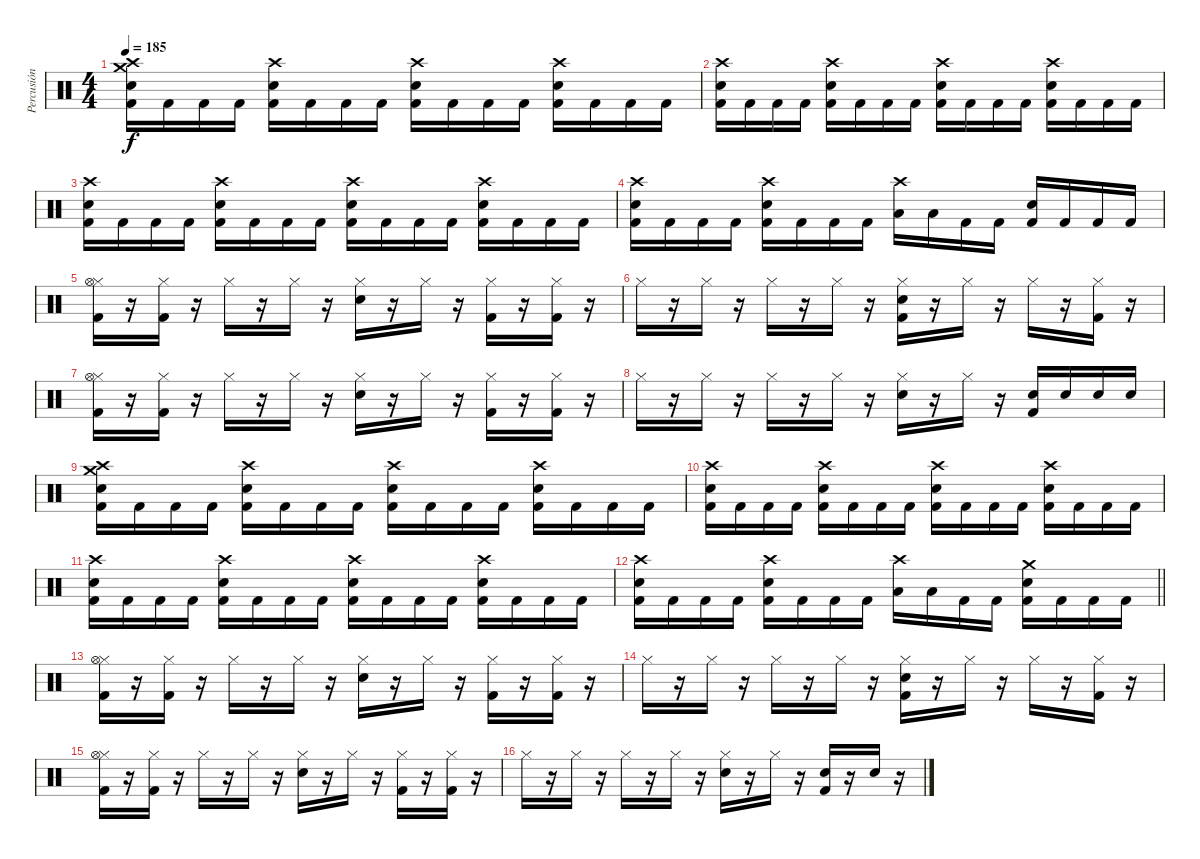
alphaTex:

\track ("Percusión" "Percusión") {instrument percussion}
\staff {score}
\articulation defaults
\ts (4 4)
\tempo 185
\clef neutral
\ks c
("Crash high (hit)" "Crash medium (hit)" "Electric Snare (hit)" "Kick (hit) 2").16{dy f} "Kick (hit) 2".16 "Kick (hit) 2".16 "Kick (hit) 2".16 ("Crash high (hit)" "Electric Snare (hit)" "Kick (hit) 2").16 "Kick (hit) 2".16 "Kick (hit) 2".16 "Kick (hit) 2".16 ("Crash high (hit)" "Electric Snare (hit)" "Kick (hit) 2").16 "Kick (hit) 2".16 "Kick (hit) 2".16 "Kick (hit) 2".16 ("Crash high (hit)" "Electric Snare (hit)" "Kick (hit) 2").16 "Kick (hit) 2".16 "Kick (hit) 2".16 "Kick (hit) 2".16 |
("Crash high (hit)" "Electric Snare (hit)" "Kick (hit) 2").16 "Kick (hit) 2".16 "Kick (hit) 2".16 "Kick (hit) 2".16 ("Crash high (hit)" "Electric Snare (hit)" "Kick (hit) 2").16 "Kick (hit) 2".16 "Kick (hit) 2".16 "Kick (hit) 2".16 ("Crash high (hit)" "Electric Snare (hit)" "Kick (hit) 2").16 "Kick (hit) 2".16 "Kick (hit) 2".16 "Kick (hit) 2".16 ("Crash high (hit)" "Electric Snare (hit)" "Kick (hit) 2").16 "Kick (hit) 2".16 "Kick (hit) 2".16 "Kick (hit) 2".16 |
("Crash high (hit)" "Electric Snare (hit)" "Kick (hit) 2").16 "Kick (hit) 2".16 "Kick (hit) 2".16 "Kick (hit) 2".16 ("Crash high (hit)" "Electric Snare (hit)" "Kick (hit) 2").16 "Kick (hit) 2".16 "Kick (hit) 2".16 "Kick (hit) 2".16 ("Crash high (hit)" "Electric Snare (hit)" "Kick (hit) 2").16 "Kick (hit) 2".16 "Kick (hit) 2".16 "Kick (hit) 2".16 ("Crash high (hit)" "Electric Snare (hit)" "Kick (hit) 2").16 "Kick (hit) 2".16 "Kick (hit) 2".16 "Kick (hit) 2".16 |
("Crash high (hit)" "Electric Snare (hit)" "Kick (hit) 2").16 "Kick (hit) 2".16 "Kick (hit) 2".16 "Kick (hit) 2".16 ("Crash high (hit)" "Electric Snare (hit)" "Kick (hit) 2").16 "Kick (hit) 2".16 "Kick (hit) 2".16 "Kick (hit) 2".16 ("Crash high (hit)" "Low Tom (hit)").16 "Low Tom (hit)".16 "Kick (hit) 2".16 "Kick (hit) 2".16 ("Electric Snare (hit)" "Kick (hit) 2").16 "Kick (hit) 2".16 "Kick (hit) 2".16 "Kick (hit) 2".16 |
("Hi-Hat (closed)" "Hi-Hat (open)" "Kick (hit) 2").16 r.16 ("Hi-Hat (closed)" "Kick (hit) 2").16 r.16 "Hi-Hat (closed)".16 r.16 "Hi-Hat (closed)".16 r.16 ("Hi-Hat (closed)" "Electric Snare (hit)").16 r.16 "Hi-Hat (closed)".16 r.16 ("Hi-Hat (closed)" "Kick (hit) 2").16 r.16 ("Hi-Hat (closed)" "Kick (hit) 2").16 r.16 |
"Hi-Hat (closed)".16 r.16 "Hi-Hat (closed)".16 r.16 "Hi-Hat (closed)".16 r.16 "Hi-Hat (closed)".16 r.16 ("Hi-Hat (closed)" "Electric Snare (hit)" "Kick (hit) 2").16 r.16 "Hi-Hat (closed)".16 r.16 "Hi-Hat (closed)".16 r.16 ("Hi-Hat (closed)" "Kick (hit) 2").16 r.16 |
("Hi-Hat (closed)" "Hi-Hat (open)" "Kick (hit) 2").16 r.16 ("Hi-Hat (closed)" "Kick (hit) 2").16 r.16 "Hi-Hat (closed)".16 r.16 "Hi-Hat (closed)".16 r.16 ("Hi-Hat (closed)" "Electric Snare (hit)").16 r.16 "Hi-Hat (closed)".16 r.16 ("Hi-Hat (closed)" "Kick (hit) 2").16 r.16 ("Hi-Hat (closed)" "Kick (hit) 2").16 r.16 |
"Hi-Hat (closed)".16 r.16 "Hi-Hat (closed)".16 r.16 "Hi-Hat (closed)".16 r.16 "Hi-Hat (closed)".16 r.16 ("Hi-Hat (closed)" "Electric Snare (hit)").16 r.16 "Hi-Hat (closed)".16 r.16 ("Electric Snare (hit)" "Kick (hit) 2").16 "Electric Snare (hit)".16 "Electric Snare (hit)".16 "Electric Snare (hit)".16 |
("Crash high (hit)" "Crash medium (hit)" "Electric Snare (hit)" "Kick (hit) 2").16 "Kick (hit) 2".16 "Kick (hit) 2".16 "Kick (hit) 2".16 ("Crash high (hit)" "Electric Snare (hit)" "Kick (hit) 2").16 "Kick (hit) 2".16 "Kick (hit) 2".16 "Kick (hit) 2".16 ("Crash high (hit)" "Electric Snare (hit)" "Kick (hit) 2").16 "Kick (hit) 2".16 "Kick (hit) 2".16 "Kick (hit) 2".16 ("Crash high (hit)" "Electric Snare (hit)" "Kick (hit) 2").16 "Kick (hit) 2".16 "Kick (hit) 2".16 "Kick (hit) 2".16 |
("Crash high (hit)" "Electric Snare (hit)" "Kick (hit) 2").16 "Kick (hit) 2".16 "Kick (hit) 2".16 "Kick (hit) 2".16 ("Crash high (hit)" "Electric Snare (hit)" "Kick (hit) 2").16 "Kick (hit) 2".16 "Kick (hit) 2".16 "Kick (hit) 2".16 ("Crash high (hit)" "Electric Snare (hit)" "Kick (hit) 2").16 "Kick (hit) 2".16 "Kick (hit) 2".16 "Kick (hit) 2".16 ("Crash high (hit)" "Electric Snare (hit)" "Kick (hit) 2").16 "Kick (hit) 2".16 "Kick (hit) 2".16 "Kick (hit) 2".16 |
("Crash high (hit)" "Electric Snare (hit)" "Kick (hit) 2").16 "Kick (hit) 2".16 "Kick (hit) 2".16 "Kick (hit) 2".16 ("Crash high (hit)" "Electric Snare (hit)" "Kick (hit) 2").16 "Kick (hit) 2".16 "Kick (hit) 2".16 "Kick (hit) 2".16 ("Crash high (hit)" "Electric Snare (hit)" "Kick (hit) 2").16 "Kick (hit) 2".16 "Kick (hit) 2".16 "Kick (hit) 2".16 ("Crash high (hit)" "Electric Snare (hit)" "Kick (hit) 2").16 "Kick (hit) 2".16 "Kick (hit) 2".16 "Kick (hit) 2".16 |
\barLineRight lightlight
("Crash high (hit)" "Electric Snare (hit)" "Kick (hit) 2").16 "Kick (hit) 2".16 "Kick (hit) 2".16 "Kick (hit) 2".16 ("Crash high (hit)" "Electric Snare (hit)" "Kick (hit) 2").16 "Kick (hit) 2".16 "Kick (hit) 2".16 "Kick (hit) 2".16 ("Crash high (hit)" "Low Tom (hit)").16 "Low Tom (hit)".16 "Kick (hit) 2".16 "Kick (hit) 2".16 ("Crash medium (hit)" "Electric Snare (hit)" "Kick (hit) 2").16 "Kick (hit) 2".16 "Kick (hit) 2".16 "Kick (hit) 2".16 |
("Hi-Hat (closed)" "Hi-Hat (open)" "Kick (hit) 2").16 r.16 ("Hi-Hat (closed)" "Kick (hit) 2").16 r.16 "Hi-Hat (closed)".16 r.16 "Hi-Hat (closed)".16 r.16 ("Hi-Hat (closed)" "Electric Snare (hit)").16 r.16 "Hi-Hat (closed)".16 r.16 ("Hi-Hat (closed)" "Kick (hit) 2").16 r.16 ("Hi-Hat (closed)" "Kick (hit) 2").16 r.16 |
"Hi-Hat (closed)".16 r.16 "Hi-Hat (closed)".16 r.16 "Hi-Hat (closed)".16 r.16 "Hi-Hat (closed)".16 r.16 ("Hi-Hat (closed)" "Electric Snare (hit)" "Kick (hit) 2").16 r.16 "Hi-Hat (closed)".16 r.16 "Hi-Hat (closed)".16 r.16 ("Hi-Hat (closed)" "Kick (hit) 2").16 r.16 |
("Hi-Hat (closed)" "Hi-Hat (open)" "Kick (hit) 2").16 r.16 ("Hi-Hat (closed)" "Kick (hit) 2").16 r.16 "Hi-Hat (closed)".16 r.16 "Hi-Hat (closed)".16 r.16 ("Hi-Hat (closed)" "Electric Snare (hit)").16 r.16 "Hi-Hat (closed)".16 r.16 ("Hi-Hat (closed)" "Kick (hit) 2").16 r.16 ("Hi-Hat (closed)" "Kick (hit) 2").16 r.16 |
"Hi-Hat (closed)".16 r.16 "Hi-Hat (closed)".16 r.16 "Hi-Hat (closed)".16 r.16 "Hi-Hat (closed)".16 r.16 ("Hi-Hat (closed)" "Electric Snare (hit)").16 r.16 "Hi-Hat (closed)".16 r.16 ("Electric Snare (hit)" "Kick (hit) 2").16 r.16 "Electric Snare (hit)".16 r.16
